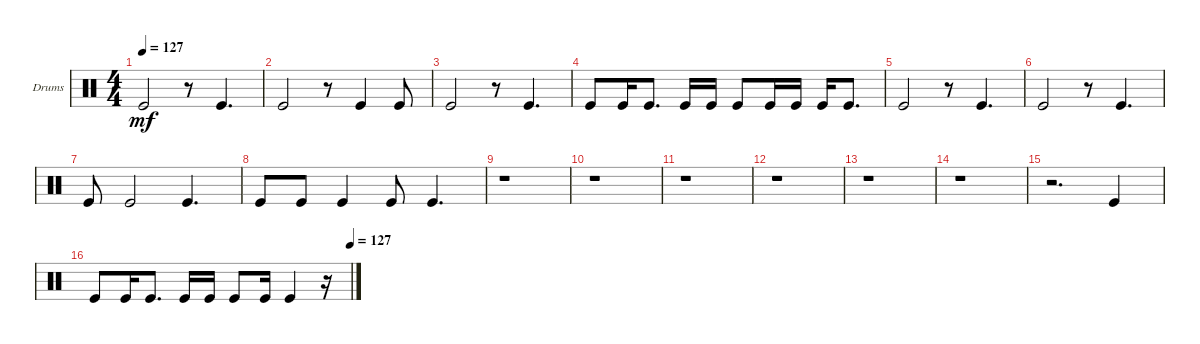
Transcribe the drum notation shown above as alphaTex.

\bracketExtendMode groupsimilarinstruments
\firstSystemTrackNameOrientation horizontal
\otherSystemsTrackNameOrientation horizontal
\track ("Drum Bass" "Drums") {instrument percussion}
\staff {score}
\articulation defaults
\ts (4 4)
\tempo 127
\clef neutral
\ks c "Kick (hit)".2{dy mf}
r.8 "Kick (hit)".4{d} |
"Kick (hit)".2 r.8 "Kick (hit)".4 "Kick (hit)".8 |
"Kick (hit)".2 r.8 "Kick (hit)".4{d} |
"Kick (hit)".8 "Kick (hit)".16 "Kick (hit)".8{d} "Kick (hit)".16 "Kick (hit)".16 "Kick (hit)".8 "Kick (hit)".16 "Kick (hit)".16 "Kick (hit)".16 "Kick (hit)".8{d} |
"Kick (hit)".2 r.8 "Kick (hit)".4{d} |
"Kick (hit)".2 r.8 "Kick (hit)".4{d} |
"Kick (hit)".8 "Kick (hit)".2 "Kick (hit)".4{d} |
"Kick (hit)".8 "Kick (hit)".8 "Kick (hit)".4 "Kick (hit)".8 "Kick (hit)".4{d} |
r.1 |
r.1 |
r.1 |
r.1 |
r.1 |
r.1 |
r.2{d} "Kick (hit)".4 |
\tempo (127 1)
"Kick (hit)".8 "Kick (hit)".16 "Kick (hit)".8{d} "Kick (hit)".16 "Kick (hit)".16 "Kick (hit)".8 "Kick (hit)".16 "Kick (hit)".4 r.16
